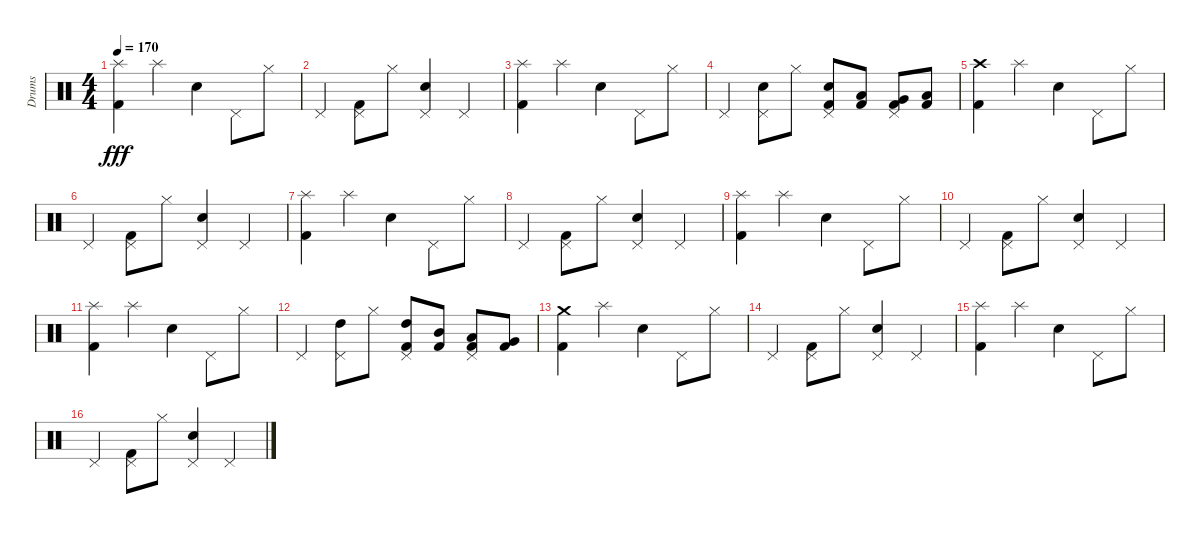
\track ("Drums" "Drums") {instrument percussion}
\staff {score}
\articulation defaults
\ts (4 4)
\tempo 170
\clef neutral
\ks c
("Splash (hit)" "Kick (hit) 2").4{dy fff} "Splash (hit)".4 "Snare (hit) 2".4 "Pedal Hi-Hat (hit)".8 "Hi-Hat (closed)".8 |
"Pedal Hi-Hat (hit)".4 ("Pedal Hi-Hat (hit)" "Kick (hit) 2").8 "Hi-Hat (closed)".8 ("Pedal Hi-Hat (hit)" "Snare (hit) 2").4 "Pedal Hi-Hat (hit)".4 |
("Splash (hit)" "Kick (hit) 2").4 "Splash (hit)".4 "Snare (hit) 2".4 "Pedal Hi-Hat (hit)".8 "Hi-Hat (closed)".8 |
"Pedal Hi-Hat (hit)".4 ("Pedal Hi-Hat (hit)" "Snare (hit) 2").8 "Hi-Hat (closed)".8 ("Pedal Hi-Hat (hit)" "Snare (hit) 2" "Kick (hit) 2").8 ("Low Tom (hit)" "Kick (hit) 2").8 ("Pedal Hi-Hat (hit)" "Very Low Tom (hit)" "Kick (hit) 2").8 ("Low Floor Tom (hit)" "Kick (hit) 2").8 |
("Crash high (hit)" "Kick (hit) 2").4 "Splash (hit)".4 "Snare (hit) 2".4 "Pedal Hi-Hat (hit)".8 "Hi-Hat (closed)".8 |
"Pedal Hi-Hat (hit)".4 ("Pedal Hi-Hat (hit)" "Kick (hit) 2").8 "Hi-Hat (closed)".8 ("Pedal Hi-Hat (hit)" "Snare (hit) 2").4 "Pedal Hi-Hat (hit)".4 |
("Splash (hit)" "Kick (hit) 2").4 "Splash (hit)".4 "Snare (hit) 2".4 "Pedal Hi-Hat (hit)".8 "Hi-Hat (closed)".8 |
"Pedal Hi-Hat (hit)".4 ("Pedal Hi-Hat (hit)" "Kick (hit) 2").8 "Hi-Hat (closed)".8 ("Pedal Hi-Hat (hit)" "Snare (hit) 2").4 "Pedal Hi-Hat (hit)".4 |
("Splash (hit)" "Kick (hit) 2").4 "Splash (hit)".4 "Snare (hit) 2".4 "Pedal Hi-Hat (hit)".8 "Hi-Hat (closed)".8 |
"Pedal Hi-Hat (hit)".4 ("Pedal Hi-Hat (hit)" "Kick (hit) 2").8 "Hi-Hat (closed)".8 ("Pedal Hi-Hat (hit)" "Snare (hit) 2").4 "Pedal Hi-Hat (hit)".4 |
("Splash (hit)" "Kick (hit) 2").4 "Splash (hit)".4 "Snare (hit) 2".4 "Pedal Hi-Hat (hit)".8 "Hi-Hat (closed)".8 |
"Pedal Hi-Hat (hit)".4 ("Pedal Hi-Hat (hit)" "High Tom (hit)").8 "Hi-Hat (closed)".8 ("Pedal Hi-Hat (hit)" "High Tom (hit)" "Kick (hit) 2").8 ("Mid Tom (hit)" "Kick (hit) 2").8 ("Pedal Hi-Hat (hit)" "Low Tom (hit)" "Kick (hit) 2").8 ("Very Low Tom (hit)" "Kick (hit) 2").8 |
("Crash medium (hit)" "Kick (hit) 2").4 "Splash (hit)".4 "Snare (hit) 2".4 "Pedal Hi-Hat (hit)".8 "Hi-Hat (closed)".8 |
"Pedal Hi-Hat (hit)".4 ("Pedal Hi-Hat (hit)" "Kick (hit) 2").8 "Hi-Hat (closed)".8 ("Pedal Hi-Hat (hit)" "Snare (hit) 2").4 "Pedal Hi-Hat (hit)".4 |
("Splash (hit)" "Kick (hit) 2").4 "Splash (hit)".4 "Snare (hit) 2".4 "Pedal Hi-Hat (hit)".8 "Hi-Hat (closed)".8 |
"Pedal Hi-Hat (hit)".4 ("Pedal Hi-Hat (hit)" "Kick (hit) 2").8 "Hi-Hat (closed)".8 ("Pedal Hi-Hat (hit)" "Snare (hit) 2").4 "Pedal Hi-Hat (hit)".4
